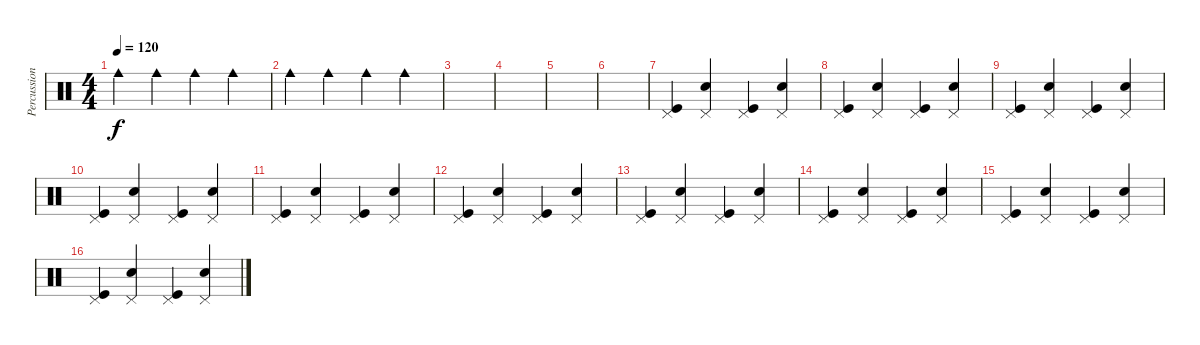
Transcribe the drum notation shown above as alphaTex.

\track ("Percussion" "Percussion") {instrument percussion}
\staff {score}
\articulation defaults
\ts (4 4)
\tempo 120
\clef neutral
\ks c "Cowbell medium (hit)".4{dy f} "Cowbell medium (hit)".4 "Cowbell medium (hit)".4 "Cowbell medium (hit)".4
|
"Cowbell medium (hit)".4 "Cowbell medium (hit)".4 "Cowbell medium (hit)".4 "Cowbell medium (hit)".4 |
|
|
|
|
("Kick (hit)" "Pedal Hi-Hat (hit)").4 ("Snare (hit) 2" "Pedal Hi-Hat (hit)").4 ("Kick (hit)" "Pedal Hi-Hat (hit)").4 ("Snare (hit) 2" "Pedal Hi-Hat (hit)").4 |
("Kick (hit)" "Pedal Hi-Hat (hit)").4 ("Snare (hit) 2" "Pedal Hi-Hat (hit)").4 ("Kick (hit)" "Pedal Hi-Hat (hit)").4 ("Snare (hit) 2" "Pedal Hi-Hat (hit)").4 |
("Kick (hit)" "Pedal Hi-Hat (hit)").4 ("Snare (hit) 2" "Pedal Hi-Hat (hit)").4 ("Kick (hit)" "Pedal Hi-Hat (hit)").4 ("Snare (hit) 2" "Pedal Hi-Hat (hit)").4 |
("Kick (hit)" "Pedal Hi-Hat (hit)").4 ("Snare (hit) 2" "Pedal Hi-Hat (hit)").4 ("Kick (hit)" "Pedal Hi-Hat (hit)").4 ("Snare (hit) 2" "Pedal Hi-Hat (hit)").4 |
("Kick (hit)" "Pedal Hi-Hat (hit)").4 ("Snare (hit) 2" "Pedal Hi-Hat (hit)").4 ("Kick (hit)" "Pedal Hi-Hat (hit)").4 ("Snare (hit) 2" "Pedal Hi-Hat (hit)").4 |
("Kick (hit)" "Pedal Hi-Hat (hit)").4 ("Snare (hit) 2" "Pedal Hi-Hat (hit)").4 ("Kick (hit)" "Pedal Hi-Hat (hit)").4 ("Snare (hit) 2" "Pedal Hi-Hat (hit)").4 |
("Kick (hit)" "Pedal Hi-Hat (hit)").4 ("Snare (hit) 2" "Pedal Hi-Hat (hit)").4 ("Kick (hit)" "Pedal Hi-Hat (hit)").4 ("Snare (hit) 2" "Pedal Hi-Hat (hit)").4 |
("Kick (hit)" "Pedal Hi-Hat (hit)").4 ("Snare (hit) 2" "Pedal Hi-Hat (hit)").4 ("Kick (hit)" "Pedal Hi-Hat (hit)").4 ("Snare (hit) 2" "Pedal Hi-Hat (hit)").4 |
("Kick (hit)" "Pedal Hi-Hat (hit)").4 ("Snare (hit) 2" "Pedal Hi-Hat (hit)").4 ("Kick (hit)" "Pedal Hi-Hat (hit)").4 ("Snare (hit) 2" "Pedal Hi-Hat (hit)").4 |
("Kick (hit)" "Pedal Hi-Hat (hit)").4 ("Snare (hit) 2" "Pedal Hi-Hat (hit)").4 ("Kick (hit)" "Pedal Hi-Hat (hit)").4 ("Snare (hit) 2" "Pedal Hi-Hat (hit)").4
